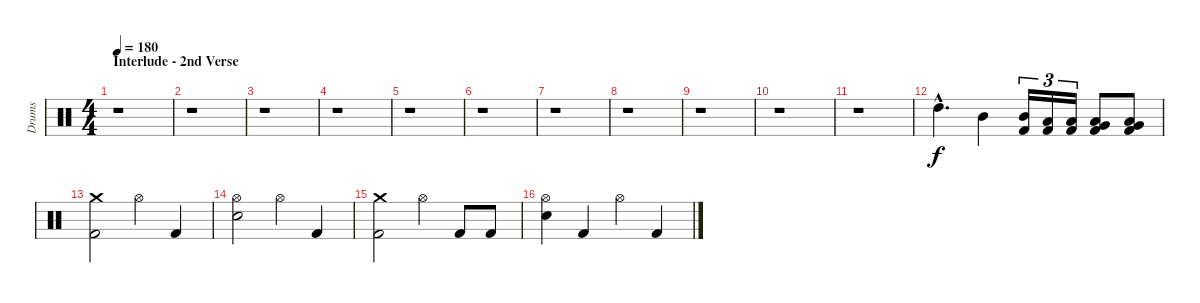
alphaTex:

\track ("Drums" "Drums") {instrument percussion}
\staff {score}
\articulation defaults
\ts (4 4)
\section ("" "Interlude - 2nd Verse")
\tempo 180
\clef neutral
\ks c
r.1{dy f} |
r.1 |
r.1 |
r.1 |
r.1 |
r.1 |
r.1 |
r.1 |
r.1 |
r.1 |
r.1 |
"High Tom (hit)"{hac}.4{d} "Mid Tom (hit)".4 ("Kick (hit) 2" "Mid Tom (hit)").16{tu (3 2)} ("Kick (hit) 2" "Low Tom (hit)").16{tu (3 2)} ("Kick (hit) 2" "Low Tom (hit)").16{tu (3 2)} ("Kick (hit) 2" "Low Tom (hit)" "Very Low Tom (hit)").8 ("Kick (hit) 2" "Low Tom (hit)" "Very Low Tom (hit)").8 |
("Kick (hit) 2" "Crash medium (hit)").2 "Hi-Hat (open)".4 "Kick (hit) 2".4 |
("Electric Snare (hit)" "Hi-Hat (open)").2 "Hi-Hat (open)".4 "Kick (hit) 2".4 |
("Kick (hit) 2" "Crash medium (hit)").2 "Hi-Hat (open)".4 "Kick (hit) 2".8 "Kick (hit) 2".8 |
("Electric Snare (hit)" "Hi-Hat (open)").4 "Kick (hit) 2".4 "Hi-Hat (open)".4 "Kick (hit) 2".4
